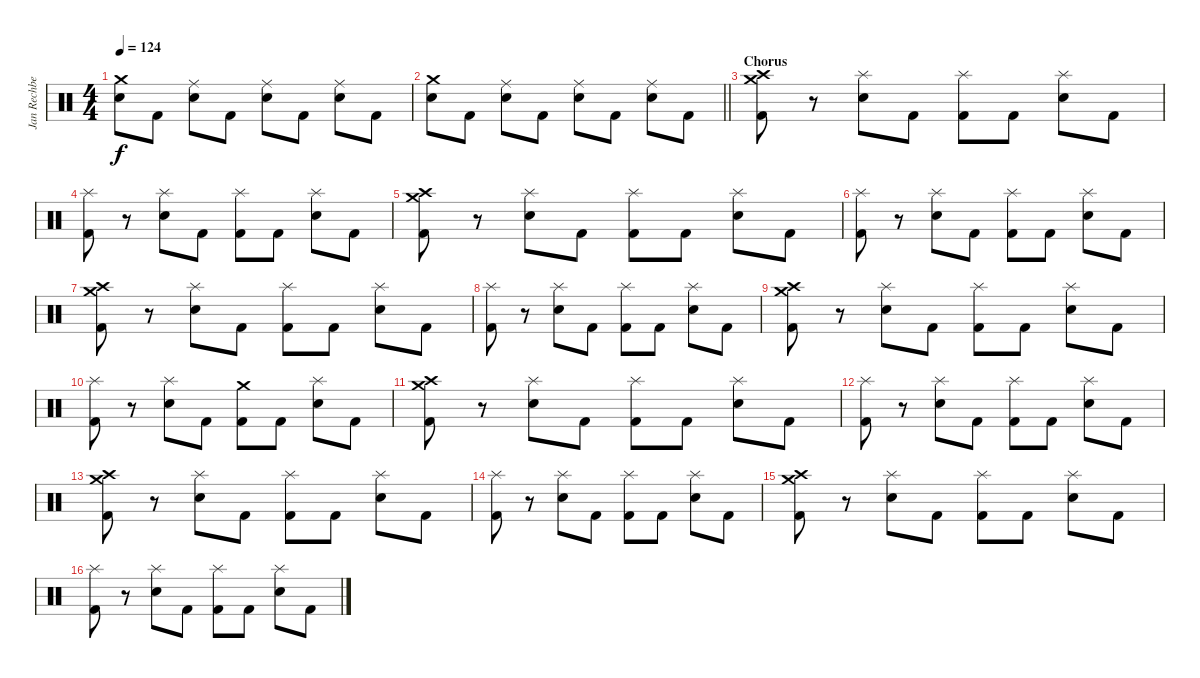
\track ("Jan Rechberger" "Jan Rechbe") {instrument percussion}
\staff {score}
\articulation defaults
\ts (4 4)
\tempo 124
\clef neutral
\ks c
("Crash medium (hit)" "Snare (hit) 2").8{dy f} "Kick (hit) 2".8 ("Ride (middle)" "Snare (hit) 2").8 "Kick (hit) 2".8 ("Ride (middle)" "Snare (hit) 2").8 "Kick (hit) 2".8 ("Ride (middle)" "Snare (hit) 2").8 "Kick (hit) 2".8 |
\barLineRight lightlight
("Crash medium (hit)" "Snare (hit) 2").8 "Kick (hit) 2".8 ("Ride (middle)" "Snare (hit) 2").8 "Kick (hit) 2".8 ("Ride (middle)" "Snare (hit) 2").8 "Kick (hit) 2".8 ("Ride (middle)" "Snare (hit) 2").8 "Kick (hit) 2".8 |
\section ("" "Chorus")
("Crash medium (hit)" "Crash high (hit)" "Kick (hit) 2").8 r.8 ("Splash (hit)" "Snare (hit) 2").8 "Kick (hit) 2".8 ("Splash (hit)" "Kick (hit) 2").8 "Kick (hit) 2".8 ("Splash (hit)" "Snare (hit) 2").8 "Kick (hit) 2".8 |
("Splash (hit)" "Kick (hit) 2").8 r.8 ("Splash (hit)" "Snare (hit) 2").8 "Kick (hit) 2".8 ("Splash (hit)" "Kick (hit) 2").8 "Kick (hit) 2".8 ("Splash (hit)" "Snare (hit) 2").8 "Kick (hit) 2".8 |
("Crash medium (hit)" "Crash high (hit)" "Kick (hit) 2").8 r.8 ("Splash (hit)" "Snare (hit) 2").8 "Kick (hit) 2".8 ("Splash (hit)" "Kick (hit) 2").8 "Kick (hit) 2".8 ("Splash (hit)" "Snare (hit) 2").8 "Kick (hit) 2".8 |
("Splash (hit)" "Kick (hit) 2").8 r.8 ("Splash (hit)" "Snare (hit) 2").8 "Kick (hit) 2".8 ("Splash (hit)" "Kick (hit) 2").8 "Kick (hit) 2".8 ("Splash (hit)" "Snare (hit) 2").8 "Kick (hit) 2".8 |
("Crash medium (hit)" "Crash high (hit)" "Kick (hit) 2").8 r.8 ("Splash (hit)" "Snare (hit) 2").8 "Kick (hit) 2".8 ("Splash (hit)" "Kick (hit) 2").8 "Kick (hit) 2".8 ("Splash (hit)" "Snare (hit) 2").8 "Kick (hit) 2".8 |
("Splash (hit)" "Kick (hit) 2").8 r.8 ("Splash (hit)" "Snare (hit) 2").8 "Kick (hit) 2".8 ("Splash (hit)" "Kick (hit) 2").8 "Kick (hit) 2".8 ("Splash (hit)" "Snare (hit) 2").8 "Kick (hit) 2".8 |
("Crash medium (hit)" "Crash high (hit)" "Kick (hit) 2").8 r.8 ("Splash (hit)" "Snare (hit) 2").8 "Kick (hit) 2".8 ("Splash (hit)" "Kick (hit) 2").8 "Kick (hit) 2".8 ("Splash (hit)" "Snare (hit) 2").8 "Kick (hit) 2".8 |
("Splash (hit)" "Kick (hit) 2").8 r.8 ("Splash (hit)" "Snare (hit) 2").8 "Kick (hit) 2".8 ("Crash medium (hit)" "Kick (hit) 2").8 "Kick (hit) 2".8 ("Splash (hit)" "Snare (hit) 2").8 "Kick (hit) 2".8 |
("Crash medium (hit)" "Crash high (hit)" "Kick (hit) 2").8 r.8 ("Splash (hit)" "Snare (hit) 2").8 "Kick (hit) 2".8 ("Splash (hit)" "Kick (hit) 2").8 "Kick (hit) 2".8 ("Splash (hit)" "Snare (hit) 2").8 "Kick (hit) 2".8 |
("Splash (hit)" "Kick (hit) 2").8 r.8 ("Splash (hit)" "Snare (hit) 2").8 "Kick (hit) 2".8 ("Splash (hit)" "Kick (hit) 2").8 "Kick (hit) 2".8 ("Splash (hit)" "Snare (hit) 2").8 "Kick (hit) 2".8 |
("Crash medium (hit)" "Crash high (hit)" "Kick (hit) 2").8 r.8 ("Splash (hit)" "Snare (hit) 2").8 "Kick (hit) 2".8 ("Splash (hit)" "Kick (hit) 2").8 "Kick (hit) 2".8 ("Splash (hit)" "Snare (hit) 2").8 "Kick (hit) 2".8 |
("Splash (hit)" "Kick (hit) 2").8 r.8 ("Splash (hit)" "Snare (hit) 2").8 "Kick (hit) 2".8 ("Splash (hit)" "Kick (hit) 2").8 "Kick (hit) 2".8 ("Splash (hit)" "Snare (hit) 2").8 "Kick (hit) 2".8 |
("Crash medium (hit)" "Crash high (hit)" "Kick (hit) 2").8 r.8 ("Splash (hit)" "Snare (hit) 2").8 "Kick (hit) 2".8 ("Splash (hit)" "Kick (hit) 2").8 "Kick (hit) 2".8 ("Splash (hit)" "Snare (hit) 2").8 "Kick (hit) 2".8 |
("Splash (hit)" "Kick (hit) 2").8 r.8 ("Splash (hit)" "Snare (hit) 2").8 "Kick (hit) 2".8 ("Splash (hit)" "Kick (hit) 2").8 "Kick (hit) 2".8 ("Splash (hit)" "Snare (hit) 2").8 "Kick (hit) 2".8
